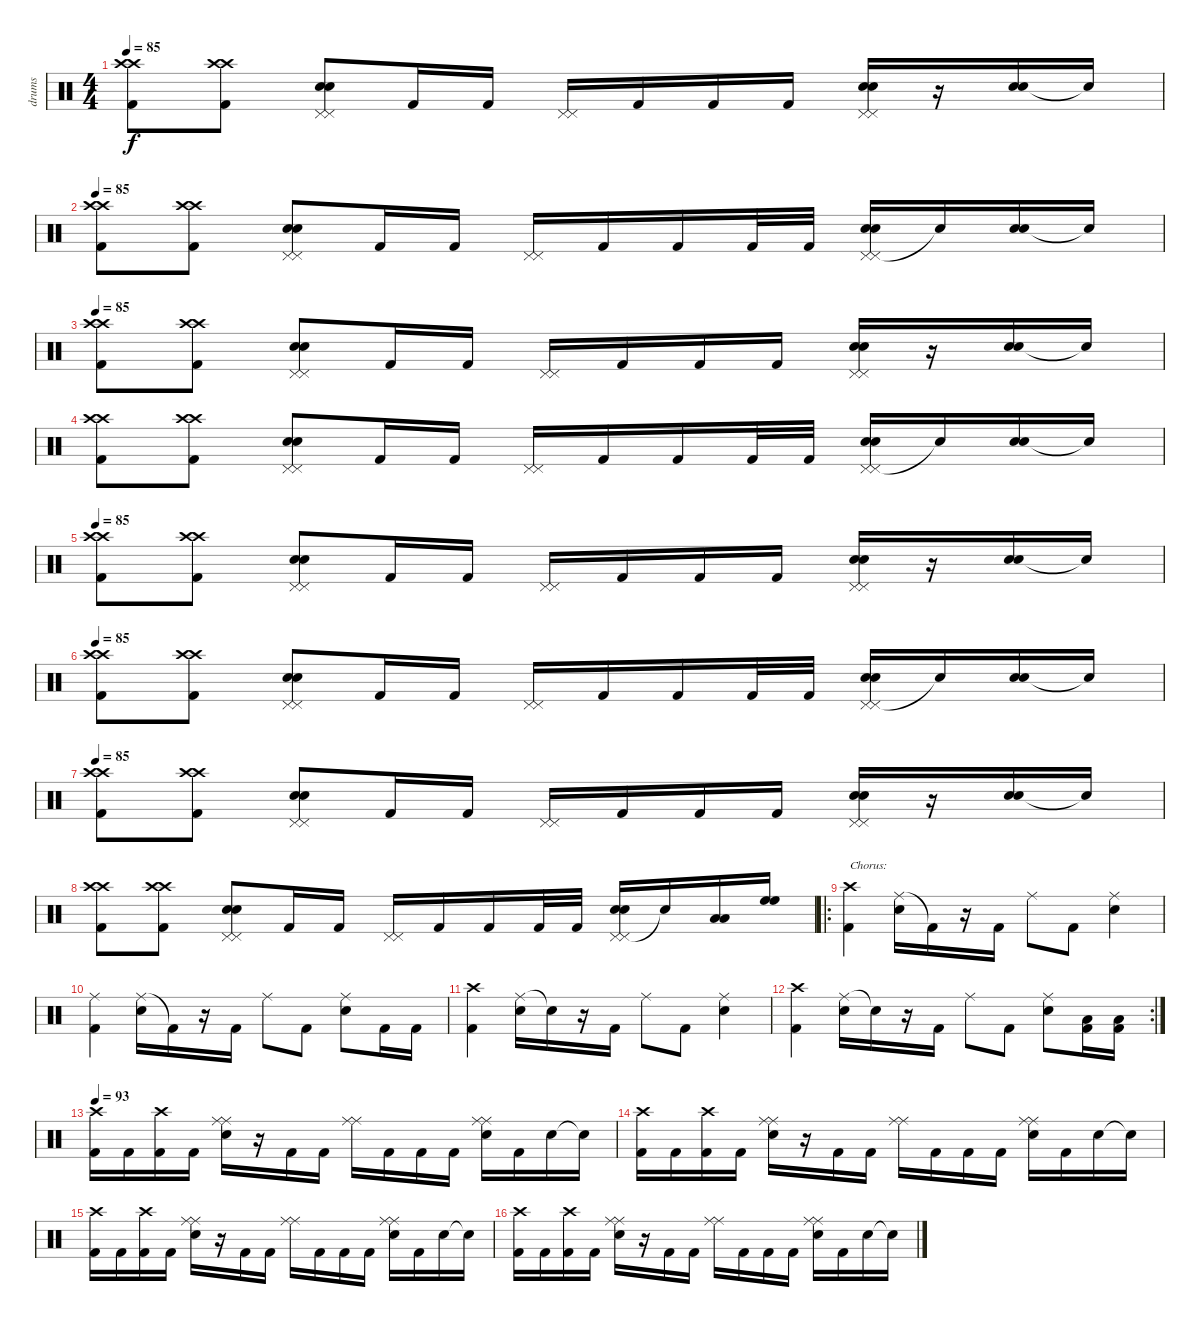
\track ("drums" "drums") {instrument percussion}
\staff {score}
\articulation defaults
\ts (4 4)
\tempo 85
\clef neutral
\ks c
("Crash high (hit)" "Crash high (hit)" "Kick (hit) 2").8{dy f} ("Crash high (hit)" "Crash high (hit)" "Kick (hit) 2").8 ("Pedal Hi-Hat (hit)" "Pedal Hi-Hat (hit)" "Electric Snare (hit)" "Electric Snare (hit)").8 "Kick (hit) 2".16 "Kick (hit) 2".16 ("Pedal Hi-Hat (hit)" "Pedal Hi-Hat (hit)").16 "Kick (hit) 2".16 "Kick (hit) 2".16 "Kick (hit) 2".16 ("Pedal Hi-Hat (hit)" "Pedal Hi-Hat (hit)" "Electric Snare (hit)" "Electric Snare (hit)").16 r.16 ("Electric Snare (hit)" "Electric Snare (hit)").16 "Snare (hit)"{t}.16 |
\tempo 85
("Crash high (hit)" "Crash high (hit)" "Kick (hit) 2").8 ("Crash high (hit)" "Crash high (hit)" "Kick (hit) 2").8 ("Pedal Hi-Hat (hit)" "Pedal Hi-Hat (hit)" "Electric Snare (hit)" "Electric Snare (hit)").8 "Kick (hit) 2".16 "Kick (hit) 2".16 ("Pedal Hi-Hat (hit)" "Pedal Hi-Hat (hit)").16 "Kick (hit) 2".16 "Kick (hit) 2".16 "Kick (hit) 2".32 "Kick (hit) 2".32 ("Pedal Hi-Hat (hit)" "Pedal Hi-Hat (hit)" "Electric Snare (hit)" "Electric Snare (hit)").16 "Snare (hit)"{t}.16 ("Electric Snare (hit)" "Electric Snare (hit)").16 "Snare (hit)"{t}.16 |
\tempo 85
("Crash high (hit)" "Crash high (hit)" "Kick (hit) 2").8 ("Crash high (hit)" "Crash high (hit)" "Kick (hit) 2").8 ("Pedal Hi-Hat (hit)" "Pedal Hi-Hat (hit)" "Electric Snare (hit)" "Electric Snare (hit)").8 "Kick (hit) 2".16 "Kick (hit) 2".16 ("Pedal Hi-Hat (hit)" "Pedal Hi-Hat (hit)").16 "Kick (hit) 2".16 "Kick (hit) 2".16 "Kick (hit) 2".16 ("Pedal Hi-Hat (hit)" "Pedal Hi-Hat (hit)" "Electric Snare (hit)" "Electric Snare (hit)").16 r.16 ("Electric Snare (hit)" "Electric Snare (hit)").16 "Snare (hit)"{t}.16 |
("Crash high (hit)" "Crash high (hit)" "Kick (hit) 2").8 ("Crash high (hit)" "Crash high (hit)" "Kick (hit) 2").8 ("Pedal Hi-Hat (hit)" "Pedal Hi-Hat (hit)" "Electric Snare (hit)" "Electric Snare (hit)").8 "Kick (hit) 2".16 "Kick (hit) 2".16 ("Pedal Hi-Hat (hit)" "Pedal Hi-Hat (hit)").16 "Kick (hit) 2".16 "Kick (hit) 2".16 "Kick (hit) 2".32 "Kick (hit) 2".32 ("Pedal Hi-Hat (hit)" "Pedal Hi-Hat (hit)" "Electric Snare (hit)" "Electric Snare (hit)").16 "Snare (hit)"{t}.16 ("Electric Snare (hit)" "Electric Snare (hit)").16 "Snare (hit)"{t}.16 |
\tempo 85
("Crash high (hit)" "Crash high (hit)" "Kick (hit) 2").8 ("Crash high (hit)" "Crash high (hit)" "Kick (hit) 2").8 ("Pedal Hi-Hat (hit)" "Pedal Hi-Hat (hit)" "Electric Snare (hit)" "Electric Snare (hit)").8 "Kick (hit) 2".16 "Kick (hit) 2".16 ("Pedal Hi-Hat (hit)" "Pedal Hi-Hat (hit)").16 "Kick (hit) 2".16 "Kick (hit) 2".16 "Kick (hit) 2".16 ("Pedal Hi-Hat (hit)" "Pedal Hi-Hat (hit)" "Electric Snare (hit)" "Electric Snare (hit)").16 r.16 ("Electric Snare (hit)" "Electric Snare (hit)").16 "Snare (hit)"{t}.16 |
\tempo 85
("Crash high (hit)" "Crash high (hit)" "Kick (hit) 2").8 ("Crash high (hit)" "Crash high (hit)" "Kick (hit) 2").8 ("Pedal Hi-Hat (hit)" "Pedal Hi-Hat (hit)" "Electric Snare (hit)" "Electric Snare (hit)").8 "Kick (hit) 2".16 "Kick (hit) 2".16 ("Pedal Hi-Hat (hit)" "Pedal Hi-Hat (hit)").16 "Kick (hit) 2".16 "Kick (hit) 2".16 "Kick (hit) 2".32 "Kick (hit) 2".32 ("Pedal Hi-Hat (hit)" "Pedal Hi-Hat (hit)" "Electric Snare (hit)" "Electric Snare (hit)").16 "Snare (hit)"{t}.16 ("Electric Snare (hit)" "Electric Snare (hit)").16 "Snare (hit)"{t}.16 |
\tempo 85
("Crash high (hit)" "Crash high (hit)" "Kick (hit) 2").8 ("Crash high (hit)" "Crash high (hit)" "Kick (hit) 2").8 ("Pedal Hi-Hat (hit)" "Pedal Hi-Hat (hit)" "Electric Snare (hit)" "Electric Snare (hit)").8 "Kick (hit) 2".16 "Kick (hit) 2".16 ("Pedal Hi-Hat (hit)" "Pedal Hi-Hat (hit)").16 "Kick (hit) 2".16 "Kick (hit) 2".16 "Kick (hit) 2".16 ("Pedal Hi-Hat (hit)" "Pedal Hi-Hat (hit)" "Electric Snare (hit)" "Electric Snare (hit)").16 r.16 ("Electric Snare (hit)" "Electric Snare (hit)").16 "Snare (hit)"{t}.16 |
("Crash high (hit)" "Crash high (hit)" "Kick (hit) 2").8 ("Crash high (hit)" "Crash high (hit)" "Kick (hit) 2").8 ("Pedal Hi-Hat (hit)" "Pedal Hi-Hat (hit)" "Electric Snare (hit)" "Electric Snare (hit)").8 "Kick (hit) 2".16 "Kick (hit) 2".16 ("Pedal Hi-Hat (hit)" "Pedal Hi-Hat (hit)").16 "Kick (hit) 2".16 "Kick (hit) 2".16 "Kick (hit) 2".32 "Kick (hit) 2".32 ("Pedal Hi-Hat (hit)" "Pedal Hi-Hat (hit)" "Electric Snare (hit)" "Electric Snare (hit)").16 "Snare (hit)"{t}.16 ("Low Tom (hit)" "Low Tom (hit)").16 ("High Floor Tom (hit)" "High Floor Tom (hit)").16 |
\ro
("Crash high (hit)" "Kick (hit) 2").4{txt "Chorus:"} ("Ride (middle)" "Electric Snare (hit)").16 "Kick (hit) 2"{t}.16 r.16 "Kick (hit) 2".16 "Ride (middle)".8 "Kick (hit) 2".8 ("Ride (middle)" "Electric Snare (hit)").4 |
("Ride (middle)" "Kick (hit) 2").4 ("Ride (middle)" "Electric Snare (hit)").16 "Kick (hit) 2"{t}.16 r.16 "Kick (hit) 2".16 "Ride (middle)".8 "Kick (hit) 2".8 ("Ride (middle)" "Electric Snare (hit)").8 "Kick (hit) 2".16 "Kick (hit) 2".16 |
("Crash high (hit)" "Kick (hit) 2").4 ("Ride (middle)" "Electric Snare (hit)").16 "Snare (hit)"{t}.16 r.16 "Kick (hit) 2".16 "Ride (middle)".8 "Kick (hit) 2".8 ("Ride (middle)" "Electric Snare (hit)").4 |
\rc 2
("Crash high (hit)" "Kick (hit) 2").4 ("Ride (middle)" "Electric Snare (hit)").16 "Snare (hit)"{t}.16 r.16 "Kick (hit) 2".16 "Ride (middle)".8 "Kick (hit) 2".8 ("Ride (middle)" "Electric Snare (hit)").8 ("Low Tom (hit)" "Kick (hit) 2").16 ("Low Tom (hit)" "Kick (hit) 2").16 |
\tempo 93
("Crash high (hit)" "Kick (hit) 2").16 "Kick (hit) 2".16 ("Crash high (hit)" "Kick (hit) 2").16 "Kick (hit) 2".16 ("Ride (middle)" "Ride (middle)" "Electric Snare (hit)").16 r.16 "Kick (hit) 2".16 "Kick (hit) 2".16 ("Ride (middle)" "Ride (middle)").16 "Kick (hit) 2".16 "Kick (hit) 2".16 "Kick (hit) 2".16 ("Ride (middle)" "Ride (middle)" "Electric Snare (hit)").16 "Kick (hit) 2".16 "Electric Snare (hit)".16 "Snare (hit)"{t}.16 |
("Crash high (hit)" "Kick (hit) 2").16 "Kick (hit) 2".16 ("Crash high (hit)" "Kick (hit) 2").16 "Kick (hit) 2".16 ("Ride (middle)" "Ride (middle)" "Electric Snare (hit)").16 r.16 "Kick (hit) 2".16 "Kick (hit) 2".16 ("Ride (middle)" "Ride (middle)").16 "Kick (hit) 2".16 "Kick (hit) 2".16 "Kick (hit) 2".16 ("Ride (middle)" "Ride (middle)" "Electric Snare (hit)").16 "Kick (hit) 2".16 "Electric Snare (hit)".16 "Snare (hit)"{t}.16 |
("Crash high (hit)" "Kick (hit) 2").16 "Kick (hit) 2".16 ("Crash high (hit)" "Kick (hit) 2").16 "Kick (hit) 2".16 ("Ride (middle)" "Ride (middle)" "Electric Snare (hit)").16 r.16 "Kick (hit) 2".16 "Kick (hit) 2".16 ("Ride (middle)" "Ride (middle)").16 "Kick (hit) 2".16 "Kick (hit) 2".16 "Kick (hit) 2".16 ("Ride (middle)" "Ride (middle)" "Electric Snare (hit)").16 "Kick (hit) 2".16 "Electric Snare (hit)".16 "Snare (hit)"{t}.16 |
("Crash high (hit)" "Kick (hit) 2").16 "Kick (hit) 2".16 ("Crash high (hit)" "Kick (hit) 2").16 "Kick (hit) 2".16 ("Ride (middle)" "Ride (middle)" "Electric Snare (hit)").16 r.16 "Kick (hit) 2".16 "Kick (hit) 2".16 ("Ride (middle)" "Ride (middle)").16 "Kick (hit) 2".16 "Kick (hit) 2".16 "Kick (hit) 2".16 ("Ride (middle)" "Ride (middle)" "Electric Snare (hit)").16 "Kick (hit) 2".16 "Electric Snare (hit)".16 "Snare (hit)"{t}.16
